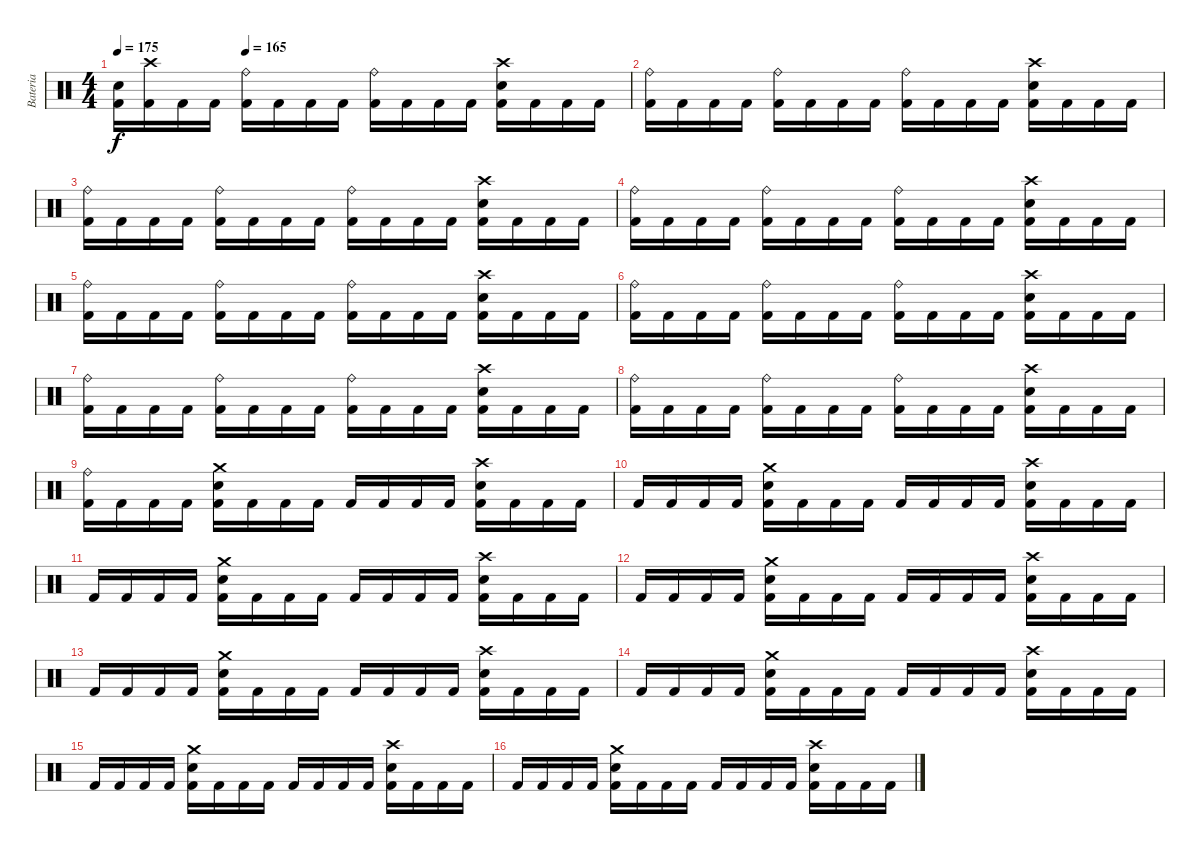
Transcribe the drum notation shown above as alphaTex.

\track ("Bateria" "Bateria") {instrument percussion}
\staff {score}
\articulation defaults
\ts (4 4)
\tempo 175
\tempo (165 0.25)
\clef neutral
\ks c
("Snare (hit) 2" "Kick (hit) 2").16{dy f} ("Crash high (hit)" "Kick (hit) 2").16 "Kick (hit) 2".16 "Kick (hit) 2".16 ("Ride (bell)" "Kick (hit) 2").16 "Kick (hit) 2".16 "Kick (hit) 2".16 "Kick (hit) 2".16 ("Ride (bell)" "Kick (hit) 2").16 "Kick (hit) 2".16 "Kick (hit) 2".16 "Kick (hit) 2".16 ("Snare (hit) 2" "Crash high (hit)" "Kick (hit) 2").16 "Kick (hit) 2".16 "Kick (hit) 2".16 "Kick (hit) 2".16 |
("Ride (bell)" "Kick (hit) 2").16 "Kick (hit) 2".16 "Kick (hit) 2".16 "Kick (hit) 2".16 ("Ride (bell)" "Kick (hit) 2").16 "Kick (hit) 2".16 "Kick (hit) 2".16 "Kick (hit) 2".16 ("Ride (bell)" "Kick (hit) 2").16 "Kick (hit) 2".16 "Kick (hit) 2".16 "Kick (hit) 2".16 ("Snare (hit) 2" "Crash high (hit)" "Kick (hit) 2").16 "Kick (hit) 2".16 "Kick (hit) 2".16 "Kick (hit) 2".16 |
("Ride (bell)" "Kick (hit) 2").16 "Kick (hit) 2".16 "Kick (hit) 2".16 "Kick (hit) 2".16 ("Ride (bell)" "Kick (hit) 2").16 "Kick (hit) 2".16 "Kick (hit) 2".16 "Kick (hit) 2".16 ("Ride (bell)" "Kick (hit) 2").16 "Kick (hit) 2".16 "Kick (hit) 2".16 "Kick (hit) 2".16 ("Snare (hit) 2" "Crash high (hit)" "Kick (hit) 2").16 "Kick (hit) 2".16 "Kick (hit) 2".16 "Kick (hit) 2".16 |
("Ride (bell)" "Kick (hit) 2").16 "Kick (hit) 2".16 "Kick (hit) 2".16 "Kick (hit) 2".16 ("Ride (bell)" "Kick (hit) 2").16 "Kick (hit) 2".16 "Kick (hit) 2".16 "Kick (hit) 2".16 ("Ride (bell)" "Kick (hit) 2").16 "Kick (hit) 2".16 "Kick (hit) 2".16 "Kick (hit) 2".16 ("Snare (hit) 2" "Crash high (hit)" "Kick (hit) 2").16 "Kick (hit) 2".16 "Kick (hit) 2".16 "Kick (hit) 2".16 |
("Ride (bell)" "Kick (hit) 2").16 "Kick (hit) 2".16 "Kick (hit) 2".16 "Kick (hit) 2".16 ("Ride (bell)" "Kick (hit) 2").16 "Kick (hit) 2".16 "Kick (hit) 2".16 "Kick (hit) 2".16 ("Ride (bell)" "Kick (hit) 2").16 "Kick (hit) 2".16 "Kick (hit) 2".16 "Kick (hit) 2".16 ("Snare (hit) 2" "Crash high (hit)" "Kick (hit) 2").16 "Kick (hit) 2".16 "Kick (hit) 2".16 "Kick (hit) 2".16 |
("Ride (bell)" "Kick (hit) 2").16 "Kick (hit) 2".16 "Kick (hit) 2".16 "Kick (hit) 2".16 ("Ride (bell)" "Kick (hit) 2").16 "Kick (hit) 2".16 "Kick (hit) 2".16 "Kick (hit) 2".16 ("Ride (bell)" "Kick (hit) 2").16 "Kick (hit) 2".16 "Kick (hit) 2".16 "Kick (hit) 2".16 ("Snare (hit) 2" "Crash high (hit)" "Kick (hit) 2").16 "Kick (hit) 2".16 "Kick (hit) 2".16 "Kick (hit) 2".16 |
("Ride (bell)" "Kick (hit) 2").16 "Kick (hit) 2".16 "Kick (hit) 2".16 "Kick (hit) 2".16 ("Ride (bell)" "Kick (hit) 2").16 "Kick (hit) 2".16 "Kick (hit) 2".16 "Kick (hit) 2".16 ("Ride (bell)" "Kick (hit) 2").16 "Kick (hit) 2".16 "Kick (hit) 2".16 "Kick (hit) 2".16 ("Snare (hit) 2" "Crash high (hit)" "Kick (hit) 2").16 "Kick (hit) 2".16 "Kick (hit) 2".16 "Kick (hit) 2".16 |
("Ride (bell)" "Kick (hit) 2").16 "Kick (hit) 2".16 "Kick (hit) 2".16 "Kick (hit) 2".16 ("Ride (bell)" "Kick (hit) 2").16 "Kick (hit) 2".16 "Kick (hit) 2".16 "Kick (hit) 2".16 ("Ride (bell)" "Kick (hit) 2").16 "Kick (hit) 2".16 "Kick (hit) 2".16 "Kick (hit) 2".16 ("Snare (hit) 2" "Crash high (hit)" "Kick (hit) 2").16 "Kick (hit) 2".16 "Kick (hit) 2".16 "Kick (hit) 2".16 |
("Ride (bell)" "Kick (hit) 2").16 "Kick (hit) 2".16 "Kick (hit) 2".16 "Kick (hit) 2".16 ("Crash medium (hit)" "Snare (hit) 2" "Kick (hit) 2").16 "Kick (hit) 2".16 "Kick (hit) 2".16 "Kick (hit) 2".16 "Kick (hit) 2".16 "Kick (hit) 2".16 "Kick (hit) 2".16 "Kick (hit) 2".16 ("Crash high (hit)" "Snare (hit) 2" "Kick (hit) 2").16 "Kick (hit) 2".16 "Kick (hit) 2".16 "Kick (hit) 2".16 |
"Kick (hit) 2".16 "Kick (hit) 2".16 "Kick (hit) 2".16 "Kick (hit) 2".16 ("Crash medium (hit)" "Snare (hit) 2" "Kick (hit) 2").16 "Kick (hit) 2".16 "Kick (hit) 2".16 "Kick (hit) 2".16 "Kick (hit) 2".16 "Kick (hit) 2".16 "Kick (hit) 2".16 "Kick (hit) 2".16 ("Crash high (hit)" "Snare (hit) 2" "Kick (hit) 2").16 "Kick (hit) 2".16 "Kick (hit) 2".16 "Kick (hit) 2".16 |
"Kick (hit) 2".16 "Kick (hit) 2".16 "Kick (hit) 2".16 "Kick (hit) 2".16 ("Crash medium (hit)" "Snare (hit) 2" "Kick (hit) 2").16 "Kick (hit) 2".16 "Kick (hit) 2".16 "Kick (hit) 2".16 "Kick (hit) 2".16 "Kick (hit) 2".16 "Kick (hit) 2".16 "Kick (hit) 2".16 ("Crash high (hit)" "Snare (hit) 2" "Kick (hit) 2").16 "Kick (hit) 2".16 "Kick (hit) 2".16 "Kick (hit) 2".16 |
"Kick (hit) 2".16 "Kick (hit) 2".16 "Kick (hit) 2".16 "Kick (hit) 2".16 ("Crash medium (hit)" "Snare (hit) 2" "Kick (hit) 2").16 "Kick (hit) 2".16 "Kick (hit) 2".16 "Kick (hit) 2".16 "Kick (hit) 2".16 "Kick (hit) 2".16 "Kick (hit) 2".16 "Kick (hit) 2".16 ("Crash high (hit)" "Snare (hit) 2" "Kick (hit) 2").16 "Kick (hit) 2".16 "Kick (hit) 2".16 "Kick (hit) 2".16 |
"Kick (hit) 2".16 "Kick (hit) 2".16 "Kick (hit) 2".16 "Kick (hit) 2".16 ("Crash medium (hit)" "Snare (hit) 2" "Kick (hit) 2").16 "Kick (hit) 2".16 "Kick (hit) 2".16 "Kick (hit) 2".16 "Kick (hit) 2".16 "Kick (hit) 2".16 "Kick (hit) 2".16 "Kick (hit) 2".16 ("Crash high (hit)" "Snare (hit) 2" "Kick (hit) 2").16 "Kick (hit) 2".16 "Kick (hit) 2".16 "Kick (hit) 2".16 |
"Kick (hit) 2".16 "Kick (hit) 2".16 "Kick (hit) 2".16 "Kick (hit) 2".16 ("Crash medium (hit)" "Snare (hit) 2" "Kick (hit) 2").16 "Kick (hit) 2".16 "Kick (hit) 2".16 "Kick (hit) 2".16 "Kick (hit) 2".16 "Kick (hit) 2".16 "Kick (hit) 2".16 "Kick (hit) 2".16 ("Crash high (hit)" "Snare (hit) 2" "Kick (hit) 2").16 "Kick (hit) 2".16 "Kick (hit) 2".16 "Kick (hit) 2".16 |
"Kick (hit) 2".16 "Kick (hit) 2".16 "Kick (hit) 2".16 "Kick (hit) 2".16 ("Crash medium (hit)" "Snare (hit) 2" "Kick (hit) 2").16 "Kick (hit) 2".16 "Kick (hit) 2".16 "Kick (hit) 2".16 "Kick (hit) 2".16 "Kick (hit) 2".16 "Kick (hit) 2".16 "Kick (hit) 2".16 ("Crash high (hit)" "Snare (hit) 2" "Kick (hit) 2").16 "Kick (hit) 2".16 "Kick (hit) 2".16 "Kick (hit) 2".16 |
"Kick (hit) 2".16 "Kick (hit) 2".16 "Kick (hit) 2".16 "Kick (hit) 2".16 ("Crash medium (hit)" "Snare (hit) 2" "Kick (hit) 2").16 "Kick (hit) 2".16 "Kick (hit) 2".16 "Kick (hit) 2".16 "Kick (hit) 2".16 "Kick (hit) 2".16 "Kick (hit) 2".16 "Kick (hit) 2".16 ("Crash high (hit)" "Snare (hit) 2" "Kick (hit) 2").16 "Kick (hit) 2".16 "Kick (hit) 2".16 "Kick (hit) 2".16
